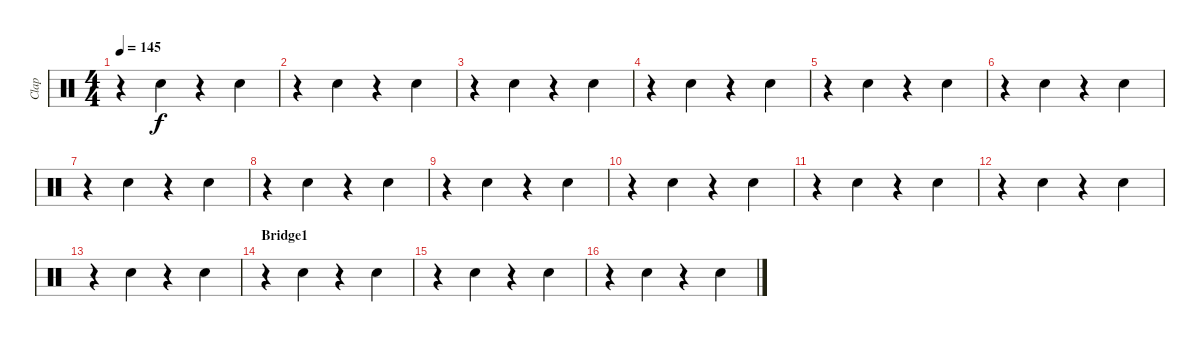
\track ("Clap" "Clap") {instrument percussion}
\staff {score}
\articulation defaults
\ts (4 4)
\tempo 145
\clef neutral
\ks c
r.4{dy f} "Hand Clap (hit)".4 r.4 "Hand Clap (hit)".4 |
r.4 "Hand Clap (hit)".4 r.4 "Hand Clap (hit)".4 |
r.4 "Hand Clap (hit)".4 r.4 "Hand Clap (hit)".4 |
r.4 "Hand Clap (hit)".4 r.4 "Hand Clap (hit)".4 |
r.4 "Hand Clap (hit)".4 r.4 "Hand Clap (hit)".4 |
r.4 "Hand Clap (hit)".4 r.4 "Hand Clap (hit)".4 |
r.4 "Hand Clap (hit)".4 r.4 "Hand Clap (hit)".4 |
r.4 "Hand Clap (hit)".4 r.4 "Hand Clap (hit)".4 |
r.4 "Hand Clap (hit)".4 r.4 "Hand Clap (hit)".4 |
r.4 "Hand Clap (hit)".4 r.4 "Hand Clap (hit)".4 |
r.4 "Hand Clap (hit)".4 r.4 "Hand Clap (hit)".4 |
r.4 "Hand Clap (hit)".4 r.4 "Hand Clap (hit)".4 |
r.4 "Hand Clap (hit)".4 r.4 "Hand Clap (hit)".4 |
\section ("" "Bridge1")
r.4 "Hand Clap (hit)".4 r.4 "Hand Clap (hit)".4 |
r.4 "Hand Clap (hit)".4 r.4 "Hand Clap (hit)".4 |
r.4 "Hand Clap (hit)".4 r.4 "Hand Clap (hit)".4
